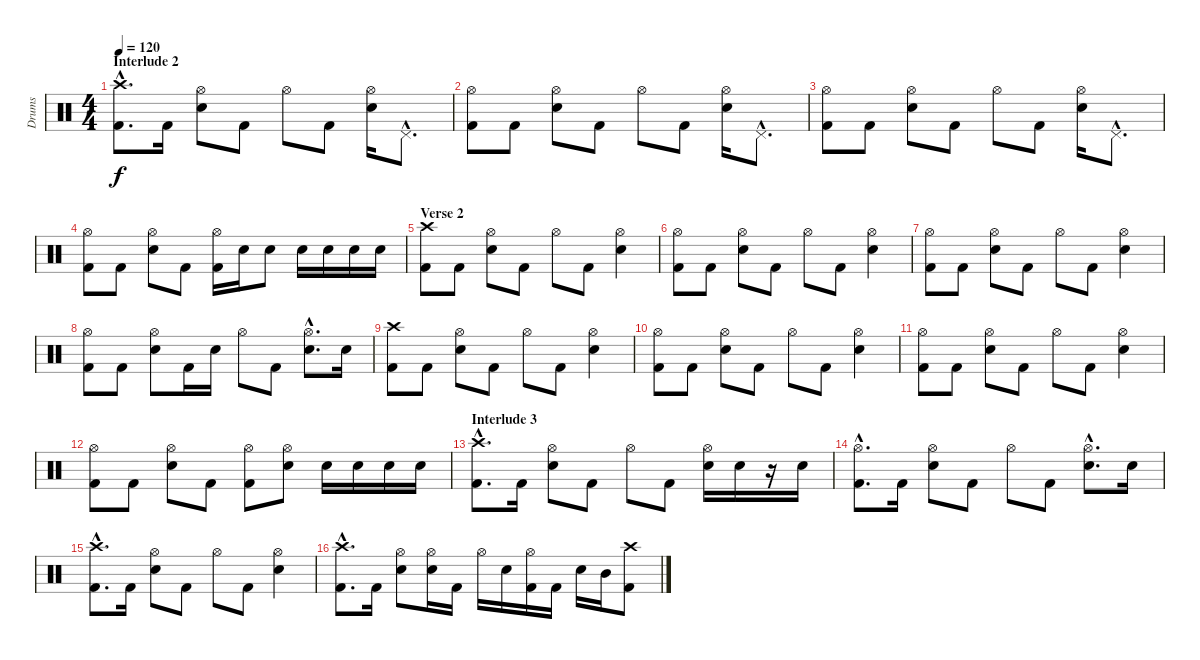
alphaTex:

\track ("Drums" "Drums") {instrument percussion}
\staff {score}
\articulation defaults
\ts (4 4)
\section ("" "Interlude 2")
\tempo 120
\clef neutral
\ks c
("Crash high (hit)"{hac} "Kick (hit) 2"{hac}).8{d dy f} "Kick (hit) 2".16 ("Hi-Hat (open)" "Electric Snare (hit)").8 "Kick (hit) 2".8 "Hi-Hat (open)".8 "Kick (hit) 2".8 ("Hi-Hat (open)" "Electric Snare (hit)").16 "Pedal Hi-Hat (hit)"{hac}.8{d} |
("Hi-Hat (open)" "Kick (hit) 2").8 "Kick (hit) 2".8 ("Hi-Hat (open)" "Electric Snare (hit)").8 "Kick (hit) 2".8 "Hi-Hat (open)".8 "Kick (hit) 2".8 ("Hi-Hat (open)" "Electric Snare (hit)").16 "Pedal Hi-Hat (hit)"{hac}.8{d} |
("Hi-Hat (open)" "Kick (hit) 2").8 "Kick (hit) 2".8 ("Hi-Hat (open)" "Electric Snare (hit)").8 "Kick (hit) 2".8 "Hi-Hat (open)".8 "Kick (hit) 2".8 ("Hi-Hat (open)" "Electric Snare (hit)").16 "Pedal Hi-Hat (hit)"{hac}.8{d} |
("Hi-Hat (open)" "Kick (hit) 2").8 "Kick (hit) 2".8 ("Hi-Hat (open)" "Electric Snare (hit)").8 "Kick (hit) 2".8 ("Hi-Hat (open)" "Kick (hit) 2").16 "Electric Snare (hit)".16 "Electric Snare (hit)".8 "Electric Snare (hit)".16 "Electric Snare (hit)".16 "Electric Snare (hit)".16 "Electric Snare (hit)".16 |
\section ("" "Verse 2")
("Crash high (hit)" "Kick (hit) 2").8 "Kick (hit) 2".8 ("Hi-Hat (open)" "Electric Snare (hit)").8 "Kick (hit) 2".8 "Hi-Hat (open)".8 "Kick (hit) 2".8 ("Hi-Hat (open)" "Electric Snare (hit)").4 |
("Hi-Hat (open)" "Kick (hit) 2").8 "Kick (hit) 2".8 ("Hi-Hat (open)" "Electric Snare (hit)").8 "Kick (hit) 2".8 "Hi-Hat (open)".8 "Kick (hit) 2".8 ("Hi-Hat (open)" "Electric Snare (hit)").4 |
("Hi-Hat (open)" "Kick (hit) 2").8 "Kick (hit) 2".8 ("Hi-Hat (open)" "Electric Snare (hit)").8 "Kick (hit) 2".8 "Hi-Hat (open)".8 "Kick (hit) 2".8 ("Hi-Hat (open)" "Electric Snare (hit)").4 |
("Hi-Hat (open)" "Kick (hit) 2").8 "Kick (hit) 2".8 ("Hi-Hat (open)" "Electric Snare (hit)").8 "Kick (hit) 2".16 "Electric Snare (hit)".16 "Hi-Hat (open)".8 "Kick (hit) 2".8 ("Hi-Hat (open)"{hac} "Electric Snare (hit)"{hac}).8{d} "Electric Snare (hit)".16 |
("Crash high (hit)" "Kick (hit) 2").8 "Kick (hit) 2".8 ("Hi-Hat (open)" "Electric Snare (hit)").8 "Kick (hit) 2".8 "Hi-Hat (open)".8 "Kick (hit) 2".8 ("Hi-Hat (open)" "Electric Snare (hit)").4 |
("Hi-Hat (open)" "Kick (hit) 2").8 "Kick (hit) 2".8 ("Hi-Hat (open)" "Electric Snare (hit)").8 "Kick (hit) 2".8 "Hi-Hat (open)".8 "Kick (hit) 2".8 ("Hi-Hat (open)" "Electric Snare (hit)").4 |
("Hi-Hat (open)" "Kick (hit) 2").8 "Kick (hit) 2".8 ("Hi-Hat (open)" "Electric Snare (hit)").8 "Kick (hit) 2".8 "Hi-Hat (open)".8 "Kick (hit) 2".8 ("Hi-Hat (open)" "Electric Snare (hit)").4 |
("Hi-Hat (open)" "Kick (hit) 2").8 "Kick (hit) 2".8 ("Hi-Hat (open)" "Electric Snare (hit)").8 "Kick (hit) 2".8 ("Hi-Hat (open)" "Kick (hit) 2").8 ("Hi-Hat (open)" "Electric Snare (hit)").8 "Electric Snare (hit)".16 "Electric Snare (hit)".16 "Electric Snare (hit)".16 "Electric Snare (hit)".16 |
\section ("" "Interlude 3")
("Crash high (hit)"{hac} "Kick (hit) 2"{hac}).8{d} "Kick (hit) 2".16 ("Hi-Hat (open)" "Electric Snare (hit)").8 "Kick (hit) 2".8 "Hi-Hat (open)".8 "Kick (hit) 2".8 ("Hi-Hat (open)" "Electric Snare (hit)").16 "Electric Snare (hit)".16 r.16 "Electric Snare (hit)".16 |
("Hi-Hat (open)"{hac} "Kick (hit) 2"{hac}).8{d} "Kick (hit) 2".16 ("Hi-Hat (open)" "Electric Snare (hit)").8 "Kick (hit) 2".8 "Hi-Hat (open)".8 "Kick (hit) 2".8 ("Hi-Hat (open)"{hac} "Electric Snare (hit)"{hac}).8{d} "Electric Snare (hit)".16 |
("Crash high (hit)"{hac} "Kick (hit) 2"{hac}).8{d} "Kick (hit) 2".16 ("Hi-Hat (open)" "Electric Snare (hit)").8 "Kick (hit) 2".8 "Hi-Hat (open)".8 "Kick (hit) 2".8 ("Hi-Hat (open)" "Electric Snare (hit)").4 |
("Crash high (hit)"{hac} "Kick (hit) 2"{hac}).8{d} "Kick (hit) 2".16 ("Hi-Hat (open)" "Electric Snare (hit)").8 ("Hi-Hat (open)" "Electric Snare (hit)").16 "Kick (hit) 2".16 "Hi-Hat (open)".16 "Electric Snare (hit)".16 ("Hi-Hat (open)" "Kick (hit) 2").16 "Kick (hit) 2".16 "Electric Snare (hit)".16 "Mid Tom (hit)".16 ("Crash high (hit)" "Kick (hit) 2").8
